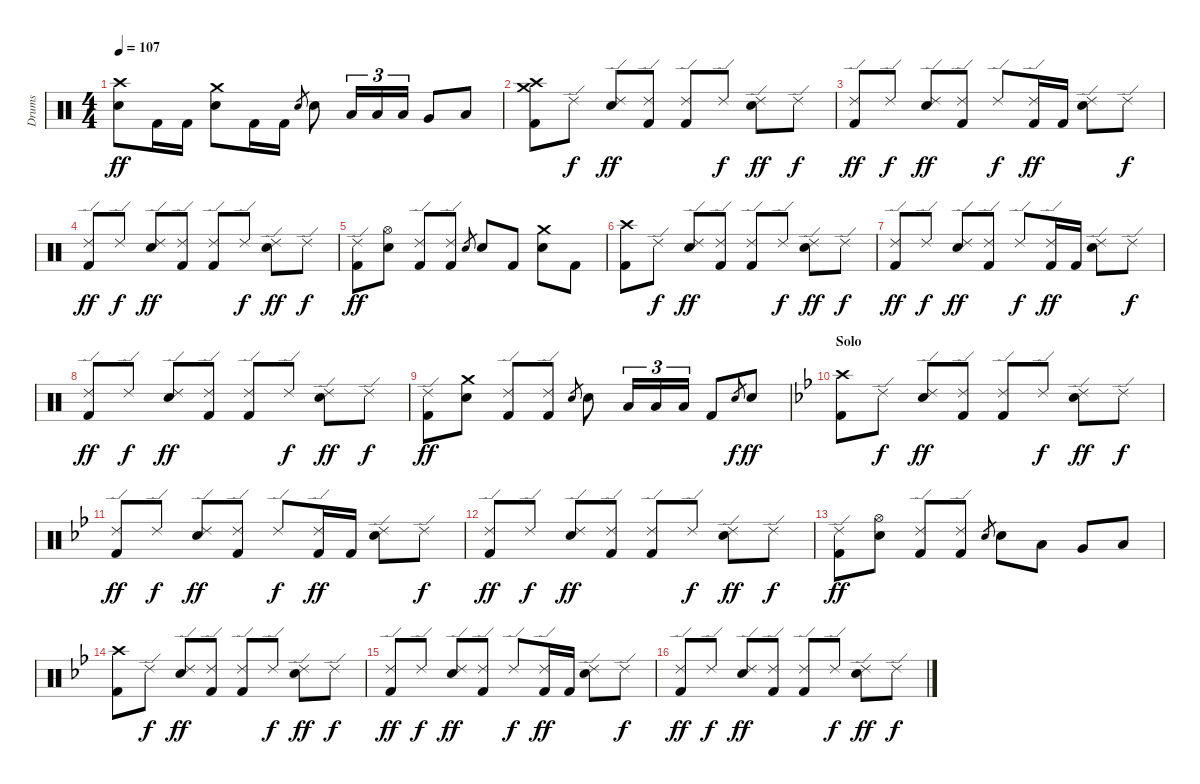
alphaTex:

\track ("Drums" "Drums") {instrument percussion}
\staff {score}
\articulation defaults
\ts (4 4)
\tempo 107
\clef neutral
\ks c
("Crash high (hit)" "Snare (hit) 2").8{dy ff} "Kick (hit) 2".16 "Kick (hit) 2".16 ("Crash medium (hit)" "Snare (hit) 2").8 "Kick (hit) 2".16 "Kick (hit) 2".16 "Snare (hit) 2".8{gr} "Snare (hit) 2".8 "Low Tom (hit)".16{tu (3 2)} "Low Tom (hit)".16{tu (3 2)} "Low Tom (hit)".16{tu (3 2)} "Very Low Tom (hit)".8 "Low Floor Tom (hit)".8 |
("Crash high (hit)" "Crash medium (hit)" "Kick (hit) 2").8 "Ride (edge) 2".8{dy f} ("Ride (edge) 2" "Snare (hit) 2").8{dy ff} ("Ride (edge) 2" "Kick (hit) 2").8 ("Ride (edge) 2" "Kick (hit) 2").8 "Ride (edge) 2".8{dy f} ("Ride (edge) 2" "Snare (hit) 2").8{dy ff} "Ride (edge) 2".8{dy f} |
("Ride (edge) 2" "Kick (hit) 2").8{dy ff} "Ride (edge) 2".8{dy f} ("Ride (edge) 2" "Snare (hit) 2").8{dy ff} ("Ride (edge) 2" "Kick (hit) 2").8 "Ride (edge) 2".8{dy f} ("Ride (edge) 2" "Kick (hit) 2").16{dy ff} "Kick (hit) 2".16 ("Ride (edge) 2" "Snare (hit) 2").8 "Ride (edge) 2".8{dy f} |
("Ride (edge) 2" "Kick (hit) 2").8{dy ff} "Ride (edge) 2".8{dy f} ("Ride (edge) 2" "Snare (hit) 2").8{dy ff} ("Ride (edge) 2" "Kick (hit) 2").8 ("Ride (edge) 2" "Kick (hit) 2").8 "Ride (edge) 2".8{dy f} ("Ride (edge) 2" "Snare (hit) 2").8{dy ff} "Ride (edge) 2".8{dy f} |
("Ride (edge) 2" "Kick (hit) 2").8{dy ff} ("Hi-Hat (open)" "Snare (hit) 2").8 ("Ride (edge) 2" "Kick (hit) 2").8 ("Ride (edge) 2" "Kick (hit) 2").8 "Snare (hit) 2".8{gr} "Snare (hit) 2".8 "Kick (hit) 2".8 ("Crash medium (hit)" "Snare (hit) 2").8 "Kick (hit) 2".8 |
("Crash high (hit)" "Kick (hit) 2").8 "Ride (edge) 2".8{dy f} ("Ride (edge) 2" "Snare (hit) 2").8{dy ff} ("Ride (edge) 2" "Kick (hit) 2").8 ("Ride (edge) 2" "Kick (hit) 2").8 "Ride (edge) 2".8{dy f} ("Ride (edge) 2" "Snare (hit) 2").8{dy ff} "Ride (edge) 2".8{dy f} |
("Ride (edge) 2" "Kick (hit) 2").8{dy ff} "Ride (edge) 2".8{dy f} ("Ride (edge) 2" "Snare (hit) 2").8{dy ff} ("Ride (edge) 2" "Kick (hit) 2").8 "Ride (edge) 2".8{dy f} ("Ride (edge) 2" "Kick (hit) 2").16{dy ff} "Kick (hit) 2".16 ("Ride (edge) 2" "Snare (hit) 2").8 "Ride (edge) 2".8{dy f} |
("Ride (edge) 2" "Kick (hit) 2").8{dy ff} "Ride (edge) 2".8{dy f} ("Ride (edge) 2" "Snare (hit) 2").8{dy ff} ("Ride (edge) 2" "Kick (hit) 2").8 ("Ride (edge) 2" "Kick (hit) 2").8 "Ride (edge) 2".8{dy f} ("Ride (edge) 2" "Snare (hit) 2").8{dy ff} "Ride (edge) 2".8{dy f} |
("Ride (edge) 2" "Kick (hit) 2").8{dy ff} ("Crash medium (hit)" "Snare (hit) 2").8 ("Ride (edge) 2" "Kick (hit) 2").8 ("Ride (edge) 2" "Kick (hit) 2").8 "Snare (hit) 2".8{gr} "Snare (hit) 2".8 "Low Tom (hit)".16{tu (3 2)} "Low Tom (hit)".16{tu (3 2)} "Low Tom (hit)".16{tu (3 2)} "Kick (hit) 2".8 "Snare (hit) 2".8{gr dy f} "Snare (hit) 2".8{dy ff} |
\section ("" "Solo")
\ks gminor
("Crash high (hit)" "Kick (hit) 2").8 "Ride (edge) 2".8{dy f} ("Ride (edge) 2" "Snare (hit) 2").8{dy ff} ("Ride (edge) 2" "Kick (hit) 2").8 ("Ride (edge) 2" "Kick (hit) 2").8 "Ride (edge) 2".8{dy f} ("Ride (edge) 2" "Snare (hit) 2").8{dy ff} "Ride (edge) 2".8{dy f} |
("Ride (edge) 2" "Kick (hit) 2").8{dy ff} "Ride (edge) 2".8{dy f} ("Ride (edge) 2" "Snare (hit) 2").8{dy ff} ("Ride (edge) 2" "Kick (hit) 2").8 "Ride (edge) 2".8{dy f} ("Ride (edge) 2" "Kick (hit) 2").16{dy ff} "Kick (hit) 2".16 ("Ride (edge) 2" "Snare (hit) 2").8 "Ride (edge) 2".8{dy f} |
("Ride (edge) 2" "Kick (hit) 2").8{dy ff} "Ride (edge) 2".8{dy f} ("Ride (edge) 2" "Snare (hit) 2").8{dy ff} ("Ride (edge) 2" "Kick (hit) 2").8 ("Ride (edge) 2" "Kick (hit) 2").8 "Ride (edge) 2".8{dy f} ("Ride (edge) 2" "Snare (hit) 2").8{dy ff} "Ride (edge) 2".8{dy f} |
("Ride (edge) 2" "Kick (hit) 2").8{dy ff} ("Hi-Hat (open)" "Snare (hit) 2").8 ("Ride (edge) 2" "Kick (hit) 2").8 ("Ride (edge) 2" "Kick (hit) 2").8 "Snare (hit) 2".8{gr} "Snare (hit) 2".8 "Low Tom (hit)".8 "Very Low Tom (hit)".8 "Low Floor Tom (hit)".8 |
("Crash high (hit)" "Kick (hit) 2").8 "Ride (edge) 2".8{dy f} ("Ride (edge) 2" "Snare (hit) 2").8{dy ff} ("Ride (edge) 2" "Kick (hit) 2").8 ("Ride (edge) 2" "Kick (hit) 2").8 "Ride (edge) 2".8{dy f} ("Ride (edge) 2" "Snare (hit) 2").8{dy ff} "Ride (edge) 2".8{dy f} |
("Ride (edge) 2" "Kick (hit) 2").8{dy ff} "Ride (edge) 2".8{dy f} ("Ride (edge) 2" "Snare (hit) 2").8{dy ff} ("Ride (edge) 2" "Kick (hit) 2").8 "Ride (edge) 2".8{dy f} ("Ride (edge) 2" "Kick (hit) 2").16{dy ff} "Kick (hit) 2".16 ("Ride (edge) 2" "Snare (hit) 2").8 "Ride (edge) 2".8{dy f} |
("Ride (edge) 2" "Kick (hit) 2").8{dy ff} "Ride (edge) 2".8{dy f} ("Ride (edge) 2" "Snare (hit) 2").8{dy ff} ("Ride (edge) 2" "Kick (hit) 2").8 ("Ride (edge) 2" "Kick (hit) 2").8 "Ride (edge) 2".8{dy f} ("Ride (edge) 2" "Snare (hit) 2").8{dy ff} "Ride (edge) 2".8{dy f}
